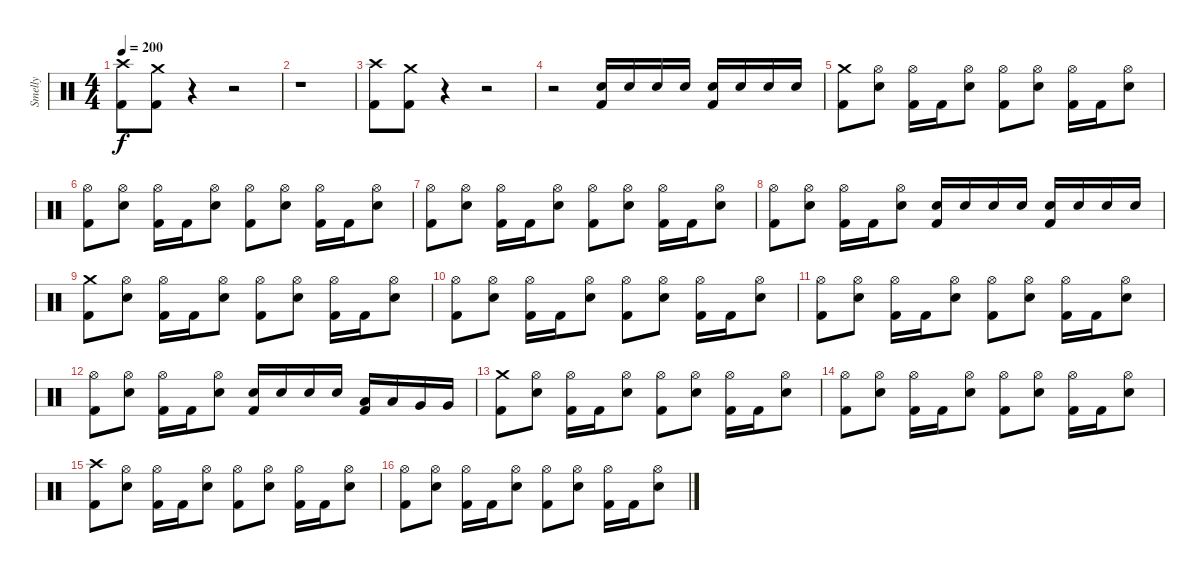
\track ("Smelly" "Smelly") {instrument percussion}
\staff {score}
\articulation defaults
\ts (4 4)
\tempo 200
\clef neutral
\ks c
("Crash high (hit)" "Kick (hit) 2").8{dy f} ("Crash medium (hit)" "Kick (hit) 2").8 r.4 r.2 |
r.1 |
("Crash high (hit)" "Kick (hit) 2").8 ("Crash medium (hit)" "Kick (hit) 2").8 r.4 r.2 |
r.2 ("Electric Snare (hit)" "Kick (hit) 2").16 "Electric Snare (hit)".16 "Electric Snare (hit)".16 "Electric Snare (hit)".16 ("Electric Snare (hit)" "Kick (hit) 2").16 "Electric Snare (hit)".16 "Electric Snare (hit)".16 "Electric Snare (hit)".16 |
("Crash medium (hit)" "Kick (hit) 2").8 ("Hi-Hat (open)" "Electric Snare (hit)").8 ("Hi-Hat (open)" "Kick (hit) 2").16 "Kick (hit) 2".16 ("Hi-Hat (open)" "Electric Snare (hit)").8 ("Hi-Hat (open)" "Kick (hit) 2").8 ("Hi-Hat (open)" "Electric Snare (hit)").8 ("Hi-Hat (open)" "Kick (hit) 2").16 "Kick (hit) 2".16 ("Hi-Hat (open)" "Electric Snare (hit)").8 |
("Hi-Hat (open)" "Kick (hit) 2").8 ("Hi-Hat (open)" "Electric Snare (hit)").8 ("Hi-Hat (open)" "Kick (hit) 2").16 "Kick (hit) 2".16 ("Hi-Hat (open)" "Electric Snare (hit)").8 ("Hi-Hat (open)" "Kick (hit) 2").8 ("Hi-Hat (open)" "Electric Snare (hit)").8 ("Hi-Hat (open)" "Kick (hit) 2").16 "Kick (hit) 2".16 ("Hi-Hat (open)" "Electric Snare (hit)").8 |
("Hi-Hat (open)" "Kick (hit) 2").8 ("Hi-Hat (open)" "Electric Snare (hit)").8 ("Hi-Hat (open)" "Kick (hit) 2").16 "Kick (hit) 2".16 ("Hi-Hat (open)" "Electric Snare (hit)").8 ("Hi-Hat (open)" "Kick (hit) 2").8 ("Hi-Hat (open)" "Electric Snare (hit)").8 ("Hi-Hat (open)" "Kick (hit) 2").16 "Kick (hit) 2".16 ("Hi-Hat (open)" "Electric Snare (hit)").8 |
("Hi-Hat (open)" "Kick (hit) 2").8 ("Hi-Hat (open)" "Electric Snare (hit)").8 ("Hi-Hat (open)" "Kick (hit) 2").16 "Kick (hit) 2".16 ("Hi-Hat (open)" "Electric Snare (hit)").8 ("Electric Snare (hit)" "Kick (hit) 2").16 "Electric Snare (hit)".16 "Electric Snare (hit)".16 "Electric Snare (hit)".16 ("Electric Snare (hit)" "Kick (hit) 2").16 "Electric Snare (hit)".16 "Electric Snare (hit)".16 "Electric Snare (hit)".16 |
("Crash medium (hit)" "Kick (hit) 2").8 ("Hi-Hat (open)" "Electric Snare (hit)").8 ("Hi-Hat (open)" "Kick (hit) 2").16 "Kick (hit) 2".16 ("Hi-Hat (open)" "Electric Snare (hit)").8 ("Hi-Hat (open)" "Kick (hit) 2").8 ("Hi-Hat (open)" "Electric Snare (hit)").8 ("Hi-Hat (open)" "Kick (hit) 2").16 "Kick (hit) 2".16 ("Hi-Hat (open)" "Electric Snare (hit)").8 |
("Hi-Hat (open)" "Kick (hit) 2").8 ("Hi-Hat (open)" "Electric Snare (hit)").8 ("Hi-Hat (open)" "Kick (hit) 2").16 "Kick (hit) 2".16 ("Hi-Hat (open)" "Electric Snare (hit)").8 ("Hi-Hat (open)" "Kick (hit) 2").8 ("Hi-Hat (open)" "Electric Snare (hit)").8 ("Hi-Hat (open)" "Kick (hit) 2").16 "Kick (hit) 2".16 ("Hi-Hat (open)" "Electric Snare (hit)").8 |
("Hi-Hat (open)" "Kick (hit) 2").8 ("Hi-Hat (open)" "Electric Snare (hit)").8 ("Hi-Hat (open)" "Kick (hit) 2").16 "Kick (hit) 2".16 ("Hi-Hat (open)" "Electric Snare (hit)").8 ("Hi-Hat (open)" "Kick (hit) 2").8 ("Hi-Hat (open)" "Electric Snare (hit)").8 ("Hi-Hat (open)" "Kick (hit) 2").16 "Kick (hit) 2".16 ("Hi-Hat (open)" "Electric Snare (hit)").8 |
("Hi-Hat (open)" "Kick (hit) 2").8 ("Hi-Hat (open)" "Electric Snare (hit)").8 ("Hi-Hat (open)" "Kick (hit) 2").16 "Kick (hit) 2".16 ("Hi-Hat (open)" "Electric Snare (hit)").8 ("Electric Snare (hit)" "Kick (hit) 2").16 "Electric Snare (hit)".16 "Electric Snare (hit)".16 "Electric Snare (hit)".16 ("Low Tom (hit)" "Kick (hit) 2").16 "Low Tom (hit)".16 "Very Low Tom (hit)".16 "Very Low Tom (hit)".16 |
("Crash medium (hit)" "Kick (hit) 2").8 ("Hi-Hat (open)" "Electric Snare (hit)").8 ("Hi-Hat (open)" "Kick (hit) 2").16 "Kick (hit) 2".16 ("Hi-Hat (open)" "Electric Snare (hit)").8 ("Hi-Hat (open)" "Kick (hit) 2").8 ("Hi-Hat (open)" "Electric Snare (hit)").8 ("Hi-Hat (open)" "Kick (hit) 2").16 "Kick (hit) 2".16 ("Hi-Hat (open)" "Electric Snare (hit)").8 |
("Hi-Hat (open)" "Kick (hit) 2").8 ("Hi-Hat (open)" "Electric Snare (hit)").8 ("Hi-Hat (open)" "Kick (hit) 2").16 "Kick (hit) 2".16 ("Hi-Hat (open)" "Electric Snare (hit)").8 ("Hi-Hat (open)" "Kick (hit) 2").8 ("Hi-Hat (open)" "Electric Snare (hit)").8 ("Hi-Hat (open)" "Kick (hit) 2").16 "Kick (hit) 2".16 ("Hi-Hat (open)" "Electric Snare (hit)").8 |
("Crash high (hit)" "Kick (hit) 2").8 ("Hi-Hat (open)" "Electric Snare (hit)").8 ("Hi-Hat (open)" "Kick (hit) 2").16 "Kick (hit) 2".16 ("Hi-Hat (open)" "Electric Snare (hit)").8 ("Hi-Hat (open)" "Kick (hit) 2").8 ("Hi-Hat (open)" "Electric Snare (hit)").8 ("Hi-Hat (open)" "Kick (hit) 2").16 "Kick (hit) 2".16 ("Hi-Hat (open)" "Electric Snare (hit)").8 |
("Hi-Hat (open)" "Kick (hit) 2").8 ("Hi-Hat (open)" "Electric Snare (hit)").8 ("Hi-Hat (open)" "Kick (hit) 2").16 "Kick (hit) 2".16 ("Hi-Hat (open)" "Electric Snare (hit)").8 ("Hi-Hat (open)" "Kick (hit) 2").8 ("Hi-Hat (open)" "Electric Snare (hit)").8 ("Hi-Hat (open)" "Kick (hit) 2").16 "Kick (hit) 2".16 ("Hi-Hat (open)" "Electric Snare (hit)").8
